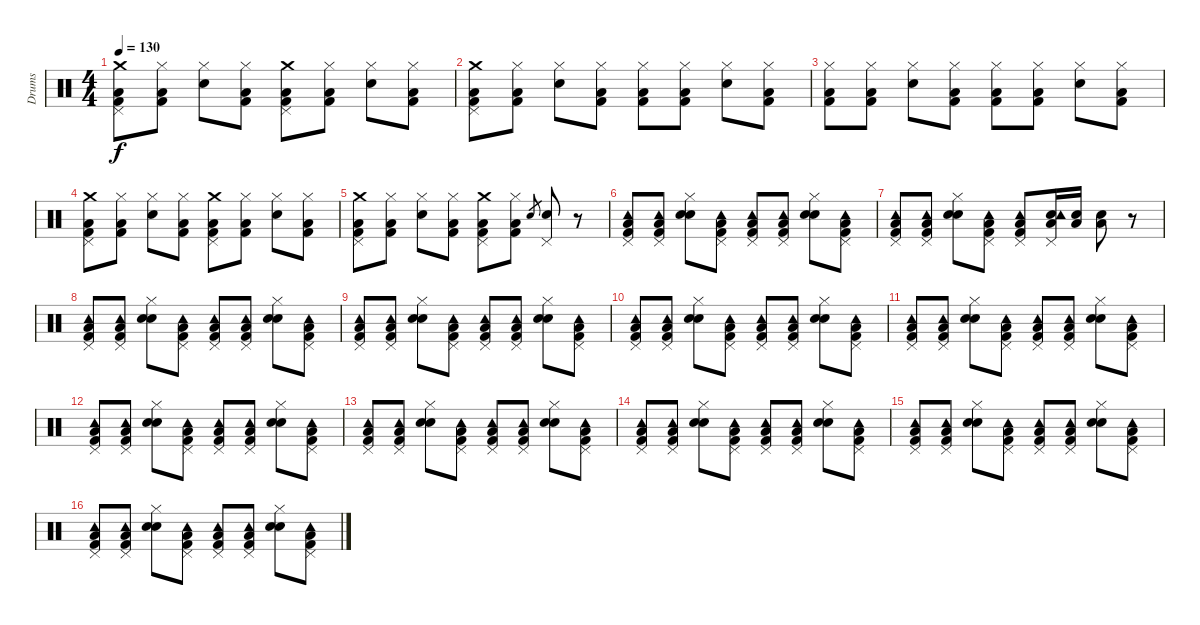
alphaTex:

\track ("Drums" "Drums") {instrument percussion}
\staff {score}
\articulation defaults
\ts (4 4)
\tempo 130
\clef neutral
\ks c
("Kick (hit) 2" "Low Floor Tom (hit)" "Pedal Hi-Hat (hit)" "Crash medium (hit)").8{dy f} ("Kick (hit) 2" "Low Floor Tom (hit)" "Hi-Hat (closed)").8 ("Electric Snare (hit)" "Hi-Hat (closed)").8 ("Kick (hit) 2" "Low Floor Tom (hit)" "Hi-Hat (closed)").8 ("Kick (hit) 2" "Low Floor Tom (hit)" "Pedal Hi-Hat (hit)" "Crash medium (hit)").8 ("Kick (hit) 2" "Low Floor Tom (hit)" "Hi-Hat (closed)").8 ("Electric Snare (hit)" "Hi-Hat (closed)").8 ("Kick (hit) 2" "Low Floor Tom (hit)" "Hi-Hat (closed)").8 |
("Kick (hit) 2" "Low Floor Tom (hit)" "Pedal Hi-Hat (hit)" "Crash medium (hit)").8 ("Kick (hit) 2" "Low Floor Tom (hit)" "Hi-Hat (closed)").8 ("Electric Snare (hit)" "Hi-Hat (closed)").8 ("Kick (hit) 2" "Low Floor Tom (hit)" "Hi-Hat (closed)").8 ("Kick (hit) 2" "Low Floor Tom (hit)" "Hi-Hat (closed)").8 ("Kick (hit) 2" "Low Floor Tom (hit)" "Hi-Hat (closed)").8 ("Electric Snare (hit)" "Hi-Hat (closed)").8 ("Kick (hit) 2" "Low Floor Tom (hit)" "Hi-Hat (closed)").8 |
("Kick (hit) 2" "Low Floor Tom (hit)" "Hi-Hat (closed)").8 ("Kick (hit) 2" "Low Floor Tom (hit)" "Hi-Hat (closed)").8 ("Electric Snare (hit)" "Hi-Hat (closed)").8 ("Kick (hit) 2" "Low Floor Tom (hit)" "Hi-Hat (closed)").8 ("Kick (hit) 2" "Low Floor Tom (hit)" "Hi-Hat (closed)").8 ("Kick (hit) 2" "Low Floor Tom (hit)" "Hi-Hat (closed)").8 ("Electric Snare (hit)" "Hi-Hat (closed)").8 ("Kick (hit) 2" "Low Floor Tom (hit)" "Hi-Hat (closed)").8 |
("Kick (hit) 2" "Low Floor Tom (hit)" "Pedal Hi-Hat (hit)" "Crash medium (hit)").8 ("Kick (hit) 2" "Low Floor Tom (hit)" "Hi-Hat (closed)").8 ("Electric Snare (hit)" "Hi-Hat (closed)").8 ("Kick (hit) 2" "Low Floor Tom (hit)" "Hi-Hat (closed)").8 ("Kick (hit) 2" "Low Floor Tom (hit)" "Pedal Hi-Hat (hit)" "Crash medium (hit)").8 ("Kick (hit) 2" "Low Floor Tom (hit)" "Hi-Hat (closed)").8 ("Electric Snare (hit)" "Hi-Hat (closed)").8 ("Kick (hit) 2" "Low Floor Tom (hit)" "Hi-Hat (closed)").8 |
("Kick (hit) 2" "Low Floor Tom (hit)" "Pedal Hi-Hat (hit)" "Crash medium (hit)").8 ("Kick (hit) 2" "Low Floor Tom (hit)" "Hi-Hat (closed)").8 ("Electric Snare (hit)" "Hi-Hat (closed)").8 ("Kick (hit) 2" "Low Floor Tom (hit)" "Hi-Hat (closed)").8 ("Kick (hit) 2" "Low Floor Tom (hit)" "Pedal Hi-Hat (hit)" "Crash medium (hit)").8 ("Kick (hit) 2" "Low Floor Tom (hit)" "Hi-Hat (closed)").8 "Electric Snare (hit)".8{gr} ("Electric Snare (hit)" "Pedal Hi-Hat (hit)").8 r.8 |
("Kick (hit) 2" "Low Floor Tom (hit)" "Pedal Hi-Hat (hit)" "Tambourine (hit)").8{volume 13} ("Kick (hit) 2" "Low Floor Tom (hit)" "Pedal Hi-Hat (hit)" "Tambourine (hit)").8 ("Electric Snare (hit)" "Hand Clap (hit)" "Hi-Hat (closed)").8 ("Kick (hit) 2" "Low Floor Tom (hit)" "Pedal Hi-Hat (hit)" "Tambourine (hit)").8 ("Kick (hit) 2" "Low Floor Tom (hit)" "Pedal Hi-Hat (hit)" "Tambourine (hit)").8 ("Kick (hit) 2" "Low Floor Tom (hit)" "Pedal Hi-Hat (hit)" "Tambourine (hit)").8 ("Electric Snare (hit)" "Hand Clap (hit)" "Hi-Hat (closed)").8 ("Kick (hit) 2" "Low Floor Tom (hit)" "Pedal Hi-Hat (hit)" "Tambourine (hit)").8 |
("Kick (hit) 2" "Low Floor Tom (hit)" "Pedal Hi-Hat (hit)" "Tambourine (hit)").8{volume 13} ("Kick (hit) 2" "Low Floor Tom (hit)" "Pedal Hi-Hat (hit)" "Tambourine (hit)").8 ("Electric Snare (hit)" "Hand Clap (hit)" "Hi-Hat (closed)").8 ("Kick (hit) 2" "Low Floor Tom (hit)" "Pedal Hi-Hat (hit)" "Tambourine (hit)").8 ("Kick (hit) 2" "Low Floor Tom (hit)" "Pedal Hi-Hat (hit)" "Tambourine (hit)").8 ("Electric Snare (hit)" "Low Floor Tom (hit)" "Pedal Hi-Hat (hit)" "Tambourine (hit)").16 ("Electric Snare (hit)" "Low Floor Tom (hit)").16 ("Electric Snare (hit)" "Low Floor Tom (hit)").8 r.8 |
("Kick (hit) 2" "Low Floor Tom (hit)" "Pedal Hi-Hat (hit)" "Tambourine (hit)").8{volume 13} ("Kick (hit) 2" "Low Floor Tom (hit)" "Pedal Hi-Hat (hit)" "Tambourine (hit)").8 ("Electric Snare (hit)" "Hand Clap (hit)" "Hi-Hat (closed)").8 ("Kick (hit) 2" "Low Floor Tom (hit)" "Pedal Hi-Hat (hit)" "Tambourine (hit)").8 ("Kick (hit) 2" "Low Floor Tom (hit)" "Pedal Hi-Hat (hit)" "Tambourine (hit)").8 ("Kick (hit) 2" "Low Floor Tom (hit)" "Pedal Hi-Hat (hit)" "Tambourine (hit)").8 ("Electric Snare (hit)" "Hand Clap (hit)" "Hi-Hat (closed)").8 ("Kick (hit) 2" "Low Floor Tom (hit)" "Pedal Hi-Hat (hit)" "Tambourine (hit)").8 |
("Kick (hit) 2" "Low Floor Tom (hit)" "Pedal Hi-Hat (hit)" "Tambourine (hit)").8{volume 13} ("Kick (hit) 2" "Low Floor Tom (hit)" "Pedal Hi-Hat (hit)" "Tambourine (hit)").8 ("Electric Snare (hit)" "Hand Clap (hit)" "Hi-Hat (closed)").8 ("Kick (hit) 2" "Low Floor Tom (hit)" "Pedal Hi-Hat (hit)" "Tambourine (hit)").8 ("Kick (hit) 2" "Low Floor Tom (hit)" "Pedal Hi-Hat (hit)" "Tambourine (hit)").8 ("Kick (hit) 2" "Low Floor Tom (hit)" "Pedal Hi-Hat (hit)" "Tambourine (hit)").8 ("Electric Snare (hit)" "Hand Clap (hit)" "Hi-Hat (closed)").8 ("Kick (hit) 2" "Low Floor Tom (hit)" "Pedal Hi-Hat (hit)" "Tambourine (hit)").8 |
("Kick (hit) 2" "Low Floor Tom (hit)" "Pedal Hi-Hat (hit)" "Tambourine (hit)").8{volume 13} ("Kick (hit) 2" "Low Floor Tom (hit)" "Pedal Hi-Hat (hit)" "Tambourine (hit)").8 ("Electric Snare (hit)" "Hand Clap (hit)" "Hi-Hat (closed)").8 ("Kick (hit) 2" "Low Floor Tom (hit)" "Pedal Hi-Hat (hit)" "Tambourine (hit)").8 ("Kick (hit) 2" "Low Floor Tom (hit)" "Pedal Hi-Hat (hit)" "Tambourine (hit)").8 ("Kick (hit) 2" "Low Floor Tom (hit)" "Pedal Hi-Hat (hit)" "Tambourine (hit)").8 ("Electric Snare (hit)" "Hand Clap (hit)" "Hi-Hat (closed)").8 ("Kick (hit) 2" "Low Floor Tom (hit)" "Pedal Hi-Hat (hit)" "Tambourine (hit)").8 |
("Kick (hit) 2" "Low Floor Tom (hit)" "Pedal Hi-Hat (hit)" "Tambourine (hit)").8{volume 13} ("Kick (hit) 2" "Low Floor Tom (hit)" "Pedal Hi-Hat (hit)" "Tambourine (hit)").8 ("Electric Snare (hit)" "Hand Clap (hit)" "Hi-Hat (closed)").8 ("Kick (hit) 2" "Low Floor Tom (hit)" "Pedal Hi-Hat (hit)" "Tambourine (hit)").8 ("Kick (hit) 2" "Low Floor Tom (hit)" "Pedal Hi-Hat (hit)" "Tambourine (hit)").8 ("Kick (hit) 2" "Low Floor Tom (hit)" "Pedal Hi-Hat (hit)" "Tambourine (hit)").8 ("Electric Snare (hit)" "Hand Clap (hit)" "Hi-Hat (closed)").8 ("Kick (hit) 2" "Low Floor Tom (hit)" "Pedal Hi-Hat (hit)" "Tambourine (hit)").8 |
("Kick (hit) 2" "Low Floor Tom (hit)" "Pedal Hi-Hat (hit)" "Tambourine (hit)").8{volume 13} ("Kick (hit) 2" "Low Floor Tom (hit)" "Pedal Hi-Hat (hit)" "Tambourine (hit)").8 ("Electric Snare (hit)" "Hand Clap (hit)" "Hi-Hat (closed)").8 ("Kick (hit) 2" "Low Floor Tom (hit)" "Pedal Hi-Hat (hit)" "Tambourine (hit)").8 ("Kick (hit) 2" "Low Floor Tom (hit)" "Pedal Hi-Hat (hit)" "Tambourine (hit)").8 ("Kick (hit) 2" "Low Floor Tom (hit)" "Pedal Hi-Hat (hit)" "Tambourine (hit)").8 ("Electric Snare (hit)" "Hand Clap (hit)" "Hi-Hat (closed)").8 ("Kick (hit) 2" "Low Floor Tom (hit)" "Pedal Hi-Hat (hit)" "Tambourine (hit)").8 |
("Kick (hit) 2" "Low Floor Tom (hit)" "Pedal Hi-Hat (hit)" "Tambourine (hit)").8{volume 13} ("Kick (hit) 2" "Low Floor Tom (hit)" "Pedal Hi-Hat (hit)" "Tambourine (hit)").8 ("Electric Snare (hit)" "Hand Clap (hit)" "Hi-Hat (closed)").8 ("Kick (hit) 2" "Low Floor Tom (hit)" "Pedal Hi-Hat (hit)" "Tambourine (hit)").8 ("Kick (hit) 2" "Low Floor Tom (hit)" "Pedal Hi-Hat (hit)" "Tambourine (hit)").8 ("Kick (hit) 2" "Low Floor Tom (hit)" "Pedal Hi-Hat (hit)" "Tambourine (hit)").8 ("Electric Snare (hit)" "Hand Clap (hit)" "Hi-Hat (closed)").8 ("Kick (hit) 2" "Low Floor Tom (hit)" "Pedal Hi-Hat (hit)" "Tambourine (hit)").8 |
("Kick (hit) 2" "Low Floor Tom (hit)" "Pedal Hi-Hat (hit)" "Tambourine (hit)").8{volume 13} ("Kick (hit) 2" "Low Floor Tom (hit)" "Pedal Hi-Hat (hit)" "Tambourine (hit)").8 ("Electric Snare (hit)" "Hand Clap (hit)" "Hi-Hat (closed)").8 ("Kick (hit) 2" "Low Floor Tom (hit)" "Pedal Hi-Hat (hit)" "Tambourine (hit)").8 ("Kick (hit) 2" "Low Floor Tom (hit)" "Pedal Hi-Hat (hit)" "Tambourine (hit)").8 ("Kick (hit) 2" "Low Floor Tom (hit)" "Pedal Hi-Hat (hit)" "Tambourine (hit)").8 ("Electric Snare (hit)" "Hand Clap (hit)" "Hi-Hat (closed)").8 ("Kick (hit) 2" "Low Floor Tom (hit)" "Pedal Hi-Hat (hit)" "Tambourine (hit)").8 |
("Kick (hit) 2" "Low Floor Tom (hit)" "Pedal Hi-Hat (hit)" "Tambourine (hit)").8{volume 13} ("Kick (hit) 2" "Low Floor Tom (hit)" "Pedal Hi-Hat (hit)" "Tambourine (hit)").8 ("Electric Snare (hit)" "Hand Clap (hit)" "Hi-Hat (closed)").8 ("Kick (hit) 2" "Low Floor Tom (hit)" "Pedal Hi-Hat (hit)" "Tambourine (hit)").8 ("Kick (hit) 2" "Low Floor Tom (hit)" "Pedal Hi-Hat (hit)" "Tambourine (hit)").8 ("Kick (hit) 2" "Low Floor Tom (hit)" "Pedal Hi-Hat (hit)" "Tambourine (hit)").8 ("Electric Snare (hit)" "Hand Clap (hit)" "Hi-Hat (closed)").8 ("Kick (hit) 2" "Low Floor Tom (hit)" "Pedal Hi-Hat (hit)" "Tambourine (hit)").8 |
("Kick (hit) 2" "Low Floor Tom (hit)" "Pedal Hi-Hat (hit)" "Tambourine (hit)").8{volume 13} ("Kick (hit) 2" "Low Floor Tom (hit)" "Pedal Hi-Hat (hit)" "Tambourine (hit)").8 ("Electric Snare (hit)" "Hand Clap (hit)" "Hi-Hat (closed)").8 ("Kick (hit) 2" "Low Floor Tom (hit)" "Pedal Hi-Hat (hit)" "Tambourine (hit)").8 ("Kick (hit) 2" "Low Floor Tom (hit)" "Pedal Hi-Hat (hit)" "Tambourine (hit)").8 ("Kick (hit) 2" "Low Floor Tom (hit)" "Pedal Hi-Hat (hit)" "Tambourine (hit)").8 ("Electric Snare (hit)" "Hand Clap (hit)" "Hi-Hat (closed)").8 ("Kick (hit) 2" "Low Floor Tom (hit)" "Pedal Hi-Hat (hit)" "Tambourine (hit)").8
